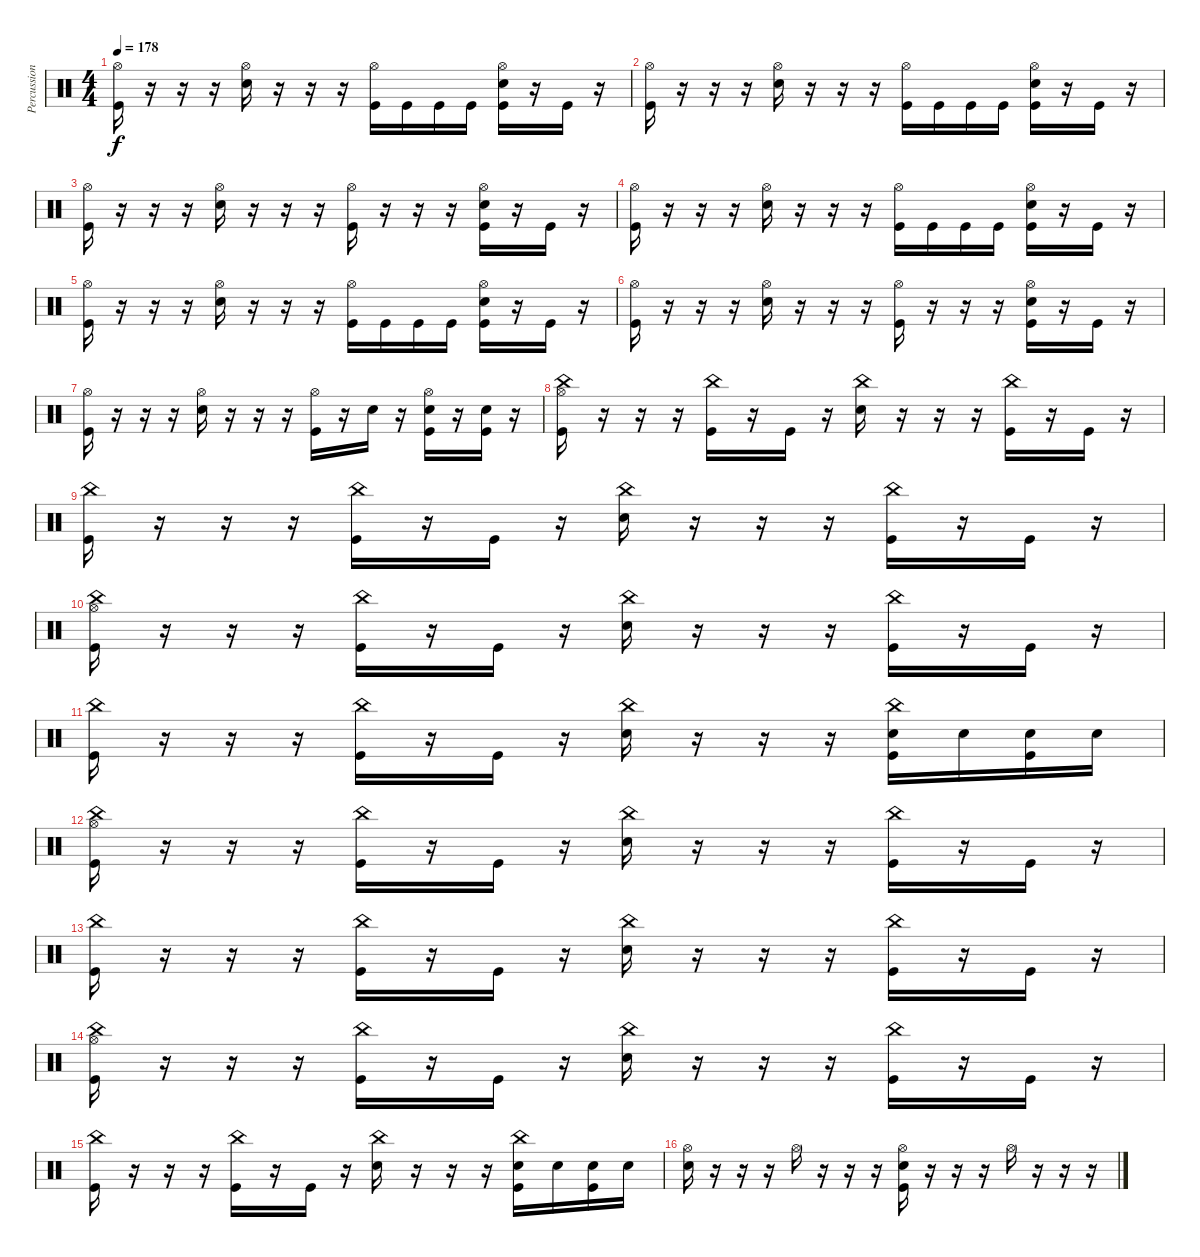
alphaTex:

\track ("Percussions" "Percussion") {instrument percussion}
\staff {score}
\articulation defaults
\ts (4 4)
\tempo 178
\clef neutral
\ks c
("Hi-Hat (open)" "Kick (hit)").16{dy f} r.16 r.16 r.16 ("Hi-Hat (open)" "Snare (hit) 2").16 r.16 r.16 r.16 ("Hi-Hat (open)" "Kick (hit)").16 "Kick (hit)".16 "Kick (hit)".16 "Kick (hit)".16 ("Hi-Hat (open)" "Snare (hit) 2" "Kick (hit)").16 r.16 "Kick (hit)".16 r.16 |
("Hi-Hat (open)" "Kick (hit)").16 r.16 r.16 r.16 ("Hi-Hat (open)" "Snare (hit) 2").16 r.16 r.16 r.16 ("Hi-Hat (open)" "Kick (hit)").16 "Kick (hit)".16 "Kick (hit)".16 "Kick (hit)".16 ("Hi-Hat (open)" "Snare (hit) 2" "Kick (hit)").16 r.16 "Kick (hit)".16 r.16 |
("Hi-Hat (open)" "Kick (hit)").16 r.16 r.16 r.16 ("Hi-Hat (open)" "Snare (hit) 2").16 r.16 r.16 r.16 ("Hi-Hat (open)" "Kick (hit)").16 r.16 r.16 r.16 ("Hi-Hat (open)" "Snare (hit) 2" "Kick (hit)").16 r.16 "Kick (hit)".16 r.16 |
("Hi-Hat (open)" "Kick (hit)").16 r.16 r.16 r.16 ("Hi-Hat (open)" "Snare (hit) 2").16 r.16 r.16 r.16 ("Hi-Hat (open)" "Kick (hit)").16 "Kick (hit)".16 "Kick (hit)".16 "Kick (hit)".16 ("Hi-Hat (open)" "Snare (hit) 2" "Kick (hit)").16 r.16 "Kick (hit)".16 r.16 |
("Hi-Hat (open)" "Kick (hit)").16 r.16 r.16 r.16 ("Hi-Hat (open)" "Snare (hit) 2").16 r.16 r.16 r.16 ("Hi-Hat (open)" "Kick (hit)").16 "Kick (hit)".16 "Kick (hit)".16 "Kick (hit)".16 ("Hi-Hat (open)" "Snare (hit) 2" "Kick (hit)").16 r.16 "Kick (hit)".16 r.16 |
("Hi-Hat (open)" "Kick (hit)").16 r.16 r.16 r.16 ("Hi-Hat (open)" "Snare (hit) 2").16 r.16 r.16 r.16 ("Hi-Hat (open)" "Kick (hit)").16 r.16 r.16 r.16 ("Hi-Hat (open)" "Snare (hit) 2" "Kick (hit)").16 r.16 "Kick (hit)".16 r.16 |
("Hi-Hat (open)" "Kick (hit)").16 r.16 r.16 r.16 ("Hi-Hat (open)" "Snare (hit) 2").16 r.16 r.16 r.16 ("Hi-Hat (open)" "Kick (hit)").16 r.16 "Snare (hit) 2".16 r.16 ("Hi-Hat (open)" "Snare (hit) 2" "Kick (hit)").16 r.16 ("Snare (hit) 2" "Kick (hit)").16 r.16 |
("China (hit)" "Hi-Hat (open)" "Kick (hit)").16 r.16 r.16 r.16 ("China (hit)" "Kick (hit)").16 r.16 "Kick (hit)".16 r.16 ("China (hit)" "Snare (hit) 2").16 r.16 r.16 r.16 ("China (hit)" "Kick (hit)").16 r.16 "Kick (hit)".16 r.16 |
("China (hit)" "Kick (hit)").16 r.16 r.16 r.16 ("China (hit)" "Kick (hit)").16 r.16 "Kick (hit)".16 r.16 ("China (hit)" "Snare (hit) 2").16 r.16 r.16 r.16 ("China (hit)" "Kick (hit)").16 r.16 "Kick (hit)".16 r.16 |
("China (hit)" "Hi-Hat (open)" "Kick (hit)").16 r.16 r.16 r.16 ("China (hit)" "Kick (hit)").16 r.16 "Kick (hit)".16 r.16 ("China (hit)" "Snare (hit) 2").16 r.16 r.16 r.16 ("China (hit)" "Kick (hit)").16 r.16 "Kick (hit)".16 r.16 |
("China (hit)" "Kick (hit)").16 r.16 r.16 r.16 ("China (hit)" "Kick (hit)").16 r.16 "Kick (hit)".16 r.16 ("China (hit)" "Snare (hit) 2").16 r.16 r.16 r.16 ("China (hit)" "Snare (hit) 2" "Kick (hit)").16 "Snare (hit) 2".16 ("Snare (hit) 2" "Kick (hit)").16 "Snare (hit) 2".16 |
("China (hit)" "Hi-Hat (open)" "Kick (hit)").16 r.16 r.16 r.16 ("China (hit)" "Kick (hit)").16 r.16 "Kick (hit)".16 r.16 ("China (hit)" "Snare (hit) 2").16 r.16 r.16 r.16 ("China (hit)" "Kick (hit)").16 r.16 "Kick (hit)".16 r.16 |
("China (hit)" "Kick (hit)").16 r.16 r.16 r.16 ("China (hit)" "Kick (hit)").16 r.16 "Kick (hit)".16 r.16 ("China (hit)" "Snare (hit) 2").16 r.16 r.16 r.16 ("China (hit)" "Kick (hit)").16 r.16 "Kick (hit)".16 r.16 |
("China (hit)" "Hi-Hat (open)" "Kick (hit)").16 r.16 r.16 r.16 ("China (hit)" "Kick (hit)").16 r.16 "Kick (hit)".16 r.16 ("China (hit)" "Snare (hit) 2").16 r.16 r.16 r.16 ("China (hit)" "Kick (hit)").16 r.16 "Kick (hit)".16 r.16 |
("China (hit)" "Kick (hit)").16 r.16 r.16 r.16 ("China (hit)" "Kick (hit)").16 r.16 "Kick (hit)".16 r.16 ("China (hit)" "Snare (hit) 2").16 r.16 r.16 r.16 ("China (hit)" "Snare (hit) 2" "Kick (hit)").16 "Snare (hit) 2".16 ("Snare (hit) 2" "Kick (hit)").16 "Snare (hit) 2".16 |
("Hi-Hat (open)" "Snare (hit) 2").16 r.16 r.16 r.16 "Hi-Hat (open)".16 r.16 r.16 r.16 ("Hi-Hat (open)" "Electric Snare (hit)" "Kick (hit)").16 r.16 r.16 r.16 "Hi-Hat (open)".16 r.16 r.16 r.16
